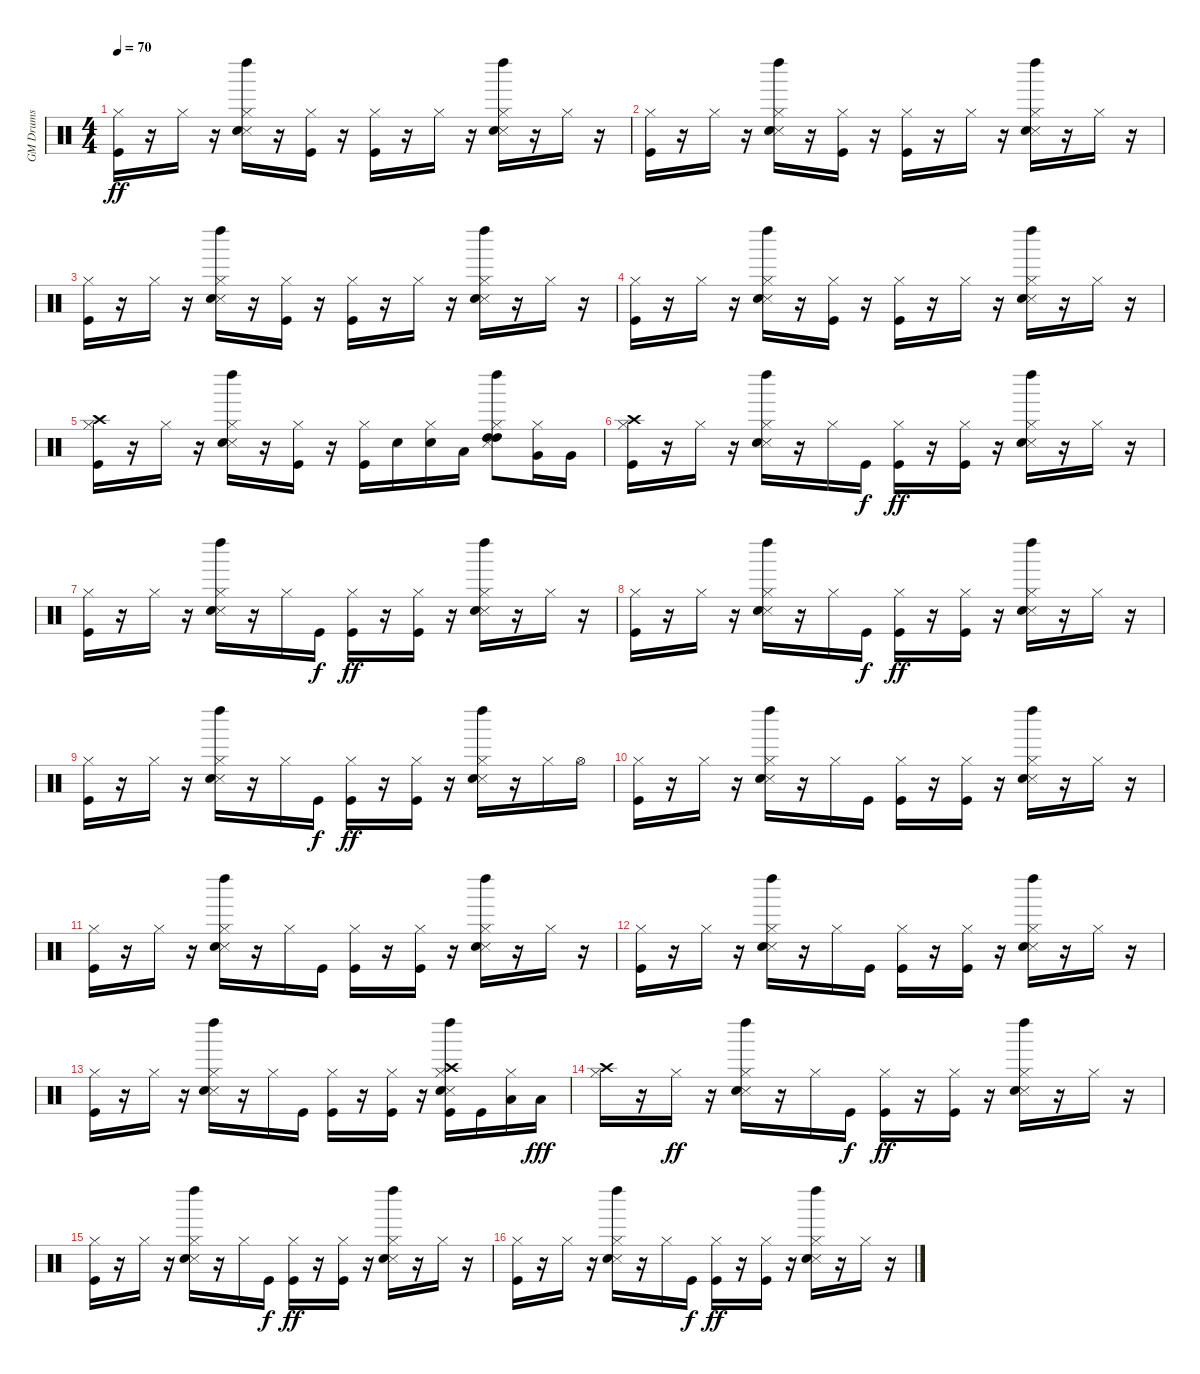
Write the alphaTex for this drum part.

\track ("GM Drums" "GM Drums") {instrument percussion}
\staff {score}
\articulation defaults
\ts (4 4)
\tempo 70
\clef neutral
\ks c
("Kick (hit)" "Hi-Hat (closed)").16{dy ff} r.16 "Hi-Hat (closed)".16 r.16 ("Snare (side stick) 3" "Snare (hit) 2" "Hi-Hat (closed)" "Left Maraca (hit)").16 r.16 ("Kick (hit)" "Hi-Hat (closed)").16 r.16 ("Kick (hit)" "Hi-Hat (closed)").16 r.16 "Hi-Hat (closed)".16 r.16 ("Snare (side stick) 3" "Snare (hit) 2" "Hi-Hat (closed)" "Left Maraca (hit)").16 r.16 "Hi-Hat (closed)".16 r.16 |
("Kick (hit)" "Hi-Hat (closed)").16 r.16 "Hi-Hat (closed)".16 r.16 ("Snare (side stick) 3" "Snare (hit) 2" "Hi-Hat (closed)" "Left Maraca (hit)").16 r.16 ("Kick (hit)" "Hi-Hat (closed)").16 r.16 ("Kick (hit)" "Hi-Hat (closed)").16 r.16 "Hi-Hat (closed)".16 r.16 ("Snare (side stick) 3" "Snare (hit) 2" "Hi-Hat (closed)" "Left Maraca (hit)").16 r.16 "Hi-Hat (closed)".16 r.16 |
("Kick (hit)" "Hi-Hat (closed)").16 r.16 "Hi-Hat (closed)".16 r.16 ("Snare (side stick) 3" "Snare (hit) 2" "Hi-Hat (closed)" "Left Maraca (hit)").16 r.16 ("Kick (hit)" "Hi-Hat (closed)").16 r.16 ("Kick (hit)" "Hi-Hat (closed)").16 r.16 "Hi-Hat (closed)".16 r.16 ("Snare (side stick) 3" "Snare (hit) 2" "Hi-Hat (closed)" "Left Maraca (hit)").16 r.16 "Hi-Hat (closed)".16 r.16 |
("Kick (hit)" "Hi-Hat (closed)").16 r.16 "Hi-Hat (closed)".16 r.16 ("Snare (side stick) 3" "Snare (hit) 2" "Hi-Hat (closed)" "Left Maraca (hit)").16 r.16 ("Kick (hit)" "Hi-Hat (closed)").16 r.16 ("Kick (hit)" "Hi-Hat (closed)").16 r.16 "Hi-Hat (closed)".16 r.16 ("Snare (side stick) 3" "Snare (hit) 2" "Hi-Hat (closed)" "Left Maraca (hit)").16 r.16 "Hi-Hat (closed)".16 r.16 |
("Kick (hit)" "Hi-Hat (closed)" "Crash high (hit)").16 r.16 "Hi-Hat (closed)".16 r.16 ("Snare (side stick) 3" "Snare (hit) 2" "Hi-Hat (closed)" "Left Maraca (hit)").16 r.16 ("Kick (hit)" "Hi-Hat (closed)").16 r.16 ("Kick (hit)" "Hi-Hat (closed)").16 "Snare (hit) 2".16 ("Snare (hit) 2" "Hi-Hat (closed)").16 "Low Tom (hit)".16 ("High Tom (hit)" "Snare (side stick) 3" "Hi-Hat (closed)" "Left Maraca (hit)" "High Tom (hit)").8 ("Hi-Hat (closed)" "Very Low Tom (hit)").16 "Very Low Tom (hit)".16 |
("Kick (hit)" "Hi-Hat (closed)" "Crash high (hit)").16 r.16 "Hi-Hat (closed)".16 r.16 ("Snare (side stick) 3" "Snare (hit) 2" "Hi-Hat (closed)" "Left Maraca (hit)").16 r.16 "Hi-Hat (closed)".16 "Kick (hit)".16{dy f} ("Kick (hit)" "Hi-Hat (closed)").16{dy ff} r.16 ("Kick (hit)" "Hi-Hat (closed)").16 r.16 ("Snare (side stick) 3" "Snare (hit) 2" "Hi-Hat (closed)" "Left Maraca (hit)").16 r.16 "Hi-Hat (closed)".16 r.16 |
("Kick (hit)" "Hi-Hat (closed)").16 r.16 "Hi-Hat (closed)".16 r.16 ("Snare (side stick) 3" "Snare (hit) 2" "Hi-Hat (closed)" "Left Maraca (hit)").16 r.16 "Hi-Hat (closed)".16 "Kick (hit)".16{dy f} ("Kick (hit)" "Hi-Hat (closed)").16{dy ff} r.16 ("Kick (hit)" "Hi-Hat (closed)").16 r.16 ("Snare (side stick) 3" "Snare (hit) 2" "Hi-Hat (closed)" "Left Maraca (hit)").16 r.16 "Hi-Hat (closed)".16 r.16 |
("Kick (hit)" "Hi-Hat (closed)").16 r.16 "Hi-Hat (closed)".16 r.16 ("Snare (side stick) 3" "Snare (hit) 2" "Hi-Hat (closed)" "Left Maraca (hit)").16 r.16 "Hi-Hat (closed)".16 "Kick (hit)".16{dy f} ("Kick (hit)" "Hi-Hat (closed)").16{dy ff} r.16 ("Kick (hit)" "Hi-Hat (closed)").16 r.16 ("Snare (side stick) 3" "Snare (hit) 2" "Hi-Hat (closed)" "Left Maraca (hit)").16 r.16 "Hi-Hat (closed)".16 r.16 |
("Kick (hit)" "Hi-Hat (closed)").16 r.16 "Hi-Hat (closed)".16 r.16 ("Snare (side stick) 3" "Snare (hit) 2" "Hi-Hat (closed)" "Left Maraca (hit)").16 r.16 "Hi-Hat (closed)".16 "Kick (hit)".16{dy f} ("Kick (hit)" "Hi-Hat (closed)").16{dy ff} r.16 ("Kick (hit)" "Hi-Hat (closed)").16 r.16 ("Snare (side stick) 3" "Snare (hit) 2" "Hi-Hat (closed)" "Left Maraca (hit)").16 r.16 "Hi-Hat (closed)".16 "Hi-Hat (open)".16 |
("Kick (hit)" "Hi-Hat (closed)").16 r.16 "Hi-Hat (closed)".16 r.16 ("Snare (side stick) 3" "Snare (hit) 2" "Hi-Hat (closed)" "Left Maraca (hit)").16 r.16 "Hi-Hat (closed)".16 "Kick (hit)".16 ("Kick (hit)" "Hi-Hat (closed)").16 r.16 ("Kick (hit)" "Hi-Hat (closed)").16 r.16 ("Snare (side stick) 3" "Snare (hit) 2" "Hi-Hat (closed)" "Left Maraca (hit)").16 r.16 "Hi-Hat (closed)".16 r.16 |
("Kick (hit)" "Hi-Hat (closed)").16 r.16 "Hi-Hat (closed)".16 r.16 ("Snare (side stick) 3" "Snare (hit) 2" "Hi-Hat (closed)" "Left Maraca (hit)").16 r.16 "Hi-Hat (closed)".16 "Kick (hit)".16 ("Kick (hit)" "Hi-Hat (closed)").16 r.16 ("Kick (hit)" "Hi-Hat (closed)").16 r.16 ("Snare (side stick) 3" "Snare (hit) 2" "Hi-Hat (closed)" "Left Maraca (hit)").16 r.16 "Hi-Hat (closed)".16 r.16 |
("Kick (hit)" "Hi-Hat (closed)").16 r.16 "Hi-Hat (closed)".16 r.16 ("Snare (side stick) 3" "Snare (hit) 2" "Hi-Hat (closed)" "Left Maraca (hit)").16 r.16 "Hi-Hat (closed)".16 "Kick (hit)".16 ("Kick (hit)" "Hi-Hat (closed)").16 r.16 ("Kick (hit)" "Hi-Hat (closed)").16 r.16 ("Snare (side stick) 3" "Snare (hit) 2" "Hi-Hat (closed)" "Left Maraca (hit)").16 r.16 "Hi-Hat (closed)".16 r.16 |
("Kick (hit)" "Hi-Hat (closed)").16 r.16 "Hi-Hat (closed)".16 r.16 ("Snare (side stick) 3" "Snare (hit) 2" "Hi-Hat (closed)" "Left Maraca (hit)").16 r.16 "Hi-Hat (closed)".16 "Kick (hit)".16 ("Kick (hit)" "Hi-Hat (closed)").16 r.16 ("Kick (hit)" "Hi-Hat (closed)").16 r.16 ("Kick (hit)" "Snare (side stick) 3" "Snare (hit) 2" "Hi-Hat (closed)" "Crash high (hit)" "Left Maraca (hit)").16 "Kick (hit)".16 ("Low Floor Tom (hit)" "Hi-Hat (closed)").16 "Low Floor Tom (hit)".16{dy fff} |
("Hi-Hat (closed)" "Crash high (hit)").16 r.16 "Hi-Hat (closed)".16{dy ff} r.16 ("Snare (side stick) 3" "Snare (hit) 2" "Hi-Hat (closed)" "Left Maraca (hit)").16 r.16 "Hi-Hat (closed)".16 "Kick (hit)".16{dy f} ("Kick (hit)" "Hi-Hat (closed)").16{dy ff} r.16 ("Kick (hit)" "Hi-Hat (closed)").16 r.16 ("Snare (side stick) 3" "Snare (hit) 2" "Hi-Hat (closed)" "Left Maraca (hit)").16 r.16 "Hi-Hat (closed)".16 r.16 |
("Kick (hit)" "Hi-Hat (closed)").16 r.16 "Hi-Hat (closed)".16 r.16 ("Snare (side stick) 3" "Snare (hit) 2" "Hi-Hat (closed)" "Left Maraca (hit)").16 r.16 "Hi-Hat (closed)".16 "Kick (hit)".16{dy f} ("Kick (hit)" "Hi-Hat (closed)").16{dy ff} r.16 ("Kick (hit)" "Hi-Hat (closed)").16 r.16 ("Snare (side stick) 3" "Snare (hit) 2" "Hi-Hat (closed)" "Left Maraca (hit)").16 r.16 "Hi-Hat (closed)".16 r.16 |
("Kick (hit)" "Hi-Hat (closed)").16 r.16 "Hi-Hat (closed)".16 r.16 ("Snare (side stick) 3" "Snare (hit) 2" "Hi-Hat (closed)" "Left Maraca (hit)").16 r.16 "Hi-Hat (closed)".16 "Kick (hit)".16{dy f} ("Kick (hit)" "Hi-Hat (closed)").16{dy ff} r.16 ("Kick (hit)" "Hi-Hat (closed)").16 r.16 ("Snare (side stick) 3" "Snare (hit) 2" "Hi-Hat (closed)" "Left Maraca (hit)").16 r.16 "Hi-Hat (closed)".16 r.16
